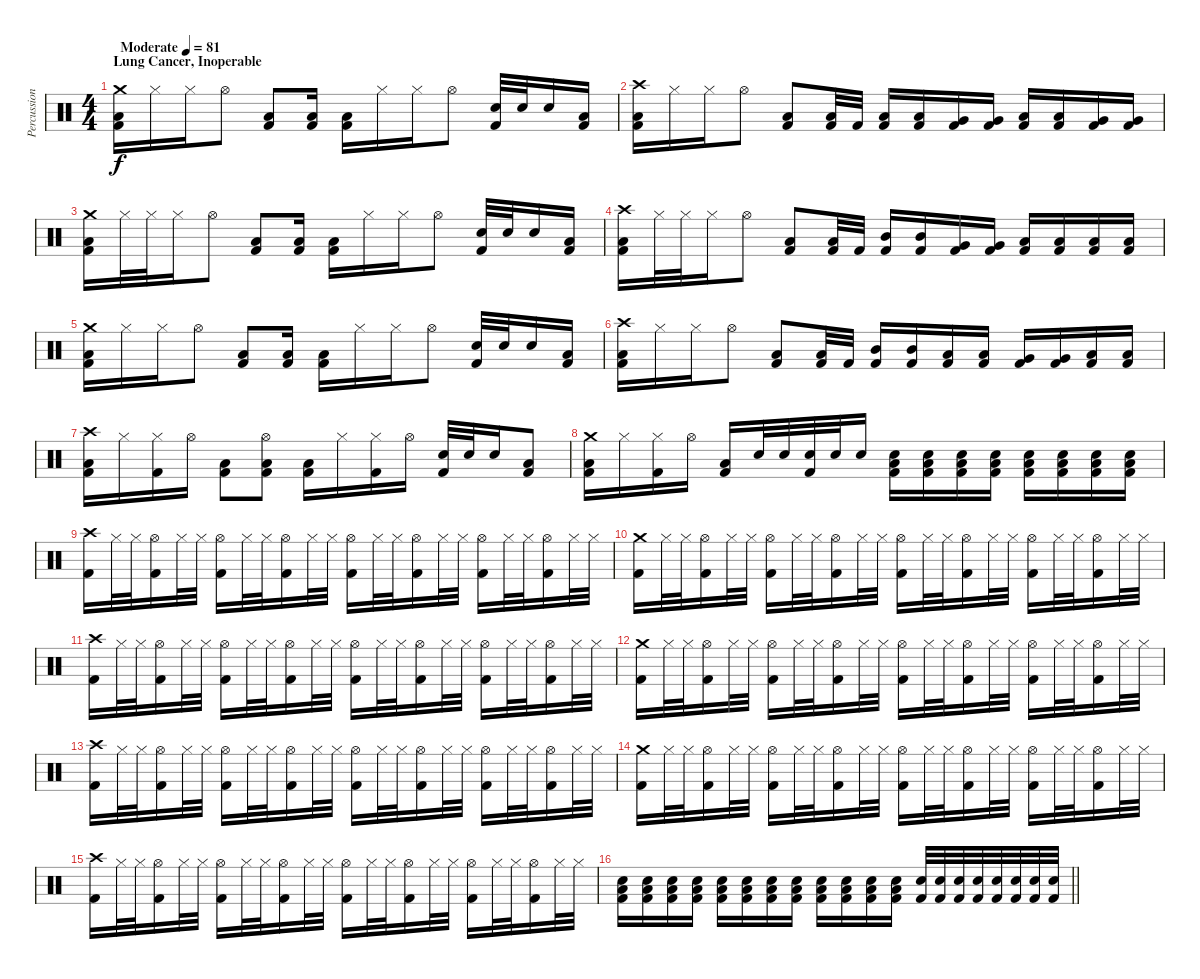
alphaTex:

\track ("Percussion" "Percussion") {instrument percussion}
\staff {score}
\articulation defaults
\ts (4 4)
\section ("" "Lung Cancer, Inoperable")
\tempo (81 "Moderate")
\clef neutral
\ks c
("Crash medium (hit)" "Low Floor Tom (hit)" "Kick (hit) 2").16{dy f} "Hi-Hat (closed)".16 "Hi-Hat (closed)".16 "Hi-Hat (open)".8 ("Low Floor Tom (hit)" "Kick (hit) 2").8 ("Low Floor Tom (hit)" "Kick (hit) 2").16 ("Low Floor Tom (hit)" "Kick (hit) 2").16 "Hi-Hat (closed)".16 "Hi-Hat (closed)".16 "Hi-Hat (open)".8 ("Electric Snare (hit)" "Kick (hit) 2").32 "Electric Snare (hit)".32 "Electric Snare (hit)".16 ("Low Floor Tom (hit)" "Kick (hit) 2").16 |
("Crash high (hit)" "Low Floor Tom (hit)" "Kick (hit) 2").16 "Hi-Hat (closed)".16 "Hi-Hat (closed)".16 "Hi-Hat (open)".8 ("Low Floor Tom (hit)" "Kick (hit) 2").8 ("Low Floor Tom (hit)" "Kick (hit) 2").32 "Kick (hit) 2".32 ("Low Floor Tom (hit)" "Kick (hit) 2").16 ("Low Floor Tom (hit)" "Kick (hit) 2").16 ("Very Low Tom (hit)" "Kick (hit) 2").16 ("Very Low Tom (hit)" "Kick (hit) 2").16 ("Low Tom (hit)" "Kick (hit) 2").16 ("Low Tom (hit)" "Kick (hit) 2").16 ("Very Low Tom (hit)" "Kick (hit) 2").16 ("Very Low Tom (hit)" "Kick (hit) 2").16 |
("Crash medium (hit)" "Low Floor Tom (hit)" "Kick (hit) 2").16 "Hi-Hat (closed)".32 "Hi-Hat (closed)".32 "Hi-Hat (closed)".16 "Hi-Hat (open)".8 ("Low Floor Tom (hit)" "Kick (hit) 2").8 ("Low Floor Tom (hit)" "Kick (hit) 2").16 ("Low Floor Tom (hit)" "Kick (hit) 2").16 "Hi-Hat (closed)".16 "Hi-Hat (closed)".16 "Hi-Hat (open)".8 ("Electric Snare (hit)" "Kick (hit) 2").32 "Electric Snare (hit)".32 "Electric Snare (hit)".16 ("Low Floor Tom (hit)" "Kick (hit) 2").16 |
("Crash high (hit)" "Low Floor Tom (hit)" "Kick (hit) 2").16 "Hi-Hat (closed)".32 "Hi-Hat (closed)".32 "Hi-Hat (closed)".16 "Hi-Hat (open)".8 ("Low Floor Tom (hit)" "Kick (hit) 2").8 ("Low Floor Tom (hit)" "Kick (hit) 2").32 "Kick (hit) 2".32 ("Mid Tom (hit)" "Kick (hit) 2").16 ("Mid Tom (hit)" "Kick (hit) 2").16 ("Very Low Tom (hit)" "Kick (hit) 2").16 ("Very Low Tom (hit)" "Kick (hit) 2").16 ("Low Tom (hit)" "Kick (hit) 2").16 ("Low Tom (hit)" "Kick (hit) 2").16 ("Low Floor Tom (hit)" "Kick (hit) 2").16 ("Low Floor Tom (hit)" "Kick (hit) 2").16 |
("Crash medium (hit)" "Low Floor Tom (hit)" "Kick (hit) 2").16 "Hi-Hat (closed)".16 "Hi-Hat (closed)".16 "Hi-Hat (open)".8 ("Low Floor Tom (hit)" "Kick (hit) 2").8 ("Low Floor Tom (hit)" "Kick (hit) 2").16 ("Low Floor Tom (hit)" "Kick (hit) 2").16 "Hi-Hat (closed)".16 "Hi-Hat (closed)".16 "Hi-Hat (open)".8 ("Electric Snare (hit)" "Kick (hit) 2").32 "Electric Snare (hit)".32 "Electric Snare (hit)".16 ("Low Floor Tom (hit)" "Kick (hit) 2").16 |
("Crash high (hit)" "Low Floor Tom (hit)" "Kick (hit) 2").16 "Hi-Hat (closed)".16 "Hi-Hat (closed)".16 "Hi-Hat (open)".8 ("Low Floor Tom (hit)" "Kick (hit) 2").8 ("Low Floor Tom (hit)" "Kick (hit) 2").32 "Kick (hit) 2".32 ("Mid Tom (hit)" "Kick (hit) 2").16 ("Mid Tom (hit)" "Kick (hit) 2").16 ("Low Tom (hit)" "Kick (hit) 2").16 ("Low Tom (hit)" "Kick (hit) 2").16 ("Very Low Tom (hit)" "Kick (hit) 2").16 ("Very Low Tom (hit)" "Kick (hit) 2").16 ("Low Floor Tom (hit)" "Kick (hit) 2").16 ("Low Floor Tom (hit)" "Kick (hit) 2").16 |
("Crash high (hit)" "Low Floor Tom (hit)" "Kick (hit) 2").16 "Hi-Hat (closed)".16 ("Hi-Hat (closed)" "Kick (hit) 2").16 "Hi-Hat (open)".16 ("Low Floor Tom (hit)" "Kick (hit) 2").8 ("Hi-Hat (open)" "Low Floor Tom (hit)" "Kick (hit) 2").8 ("Low Floor Tom (hit)" "Kick (hit) 2").16 "Hi-Hat (closed)".16 ("Hi-Hat (closed)" "Kick (hit) 2").16 "Hi-Hat (open)".16 ("Electric Snare (hit)" "Kick (hit) 2").32 "Electric Snare (hit)".32 "Electric Snare (hit)".16 ("Low Floor Tom (hit)" "Kick (hit) 2").8 |
("Crash medium (hit)" "Low Floor Tom (hit)" "Kick (hit) 2").16 "Hi-Hat (closed)".16 ("Hi-Hat (closed)" "Kick (hit) 2").16 "Hi-Hat (open)".16 ("Low Floor Tom (hit)" "Kick (hit) 2").16 "Electric Snare (hit)".32 "Electric Snare (hit)".32 ("Electric Snare (hit)" "Kick (hit) 2").32 "Electric Snare (hit)".32 "Electric Snare (hit)".16 ("Electric Snare (hit)" "Low Floor Tom (hit)" "Kick (hit) 2").16 ("Electric Snare (hit)" "Low Floor Tom (hit)" "Kick (hit) 2").16 ("Electric Snare (hit)" "Low Floor Tom (hit)" "Kick (hit) 2").16 ("Electric Snare (hit)" "Low Floor Tom (hit)" "Kick (hit) 2").16 ("Electric Snare (hit)" "Low Floor Tom (hit)" "Kick (hit) 2").16 ("Electric Snare (hit)" "Low Floor Tom (hit)" "Kick (hit) 2").16 ("Electric Snare (hit)" "Low Floor Tom (hit)" "Kick (hit) 2").16 ("Electric Snare (hit)" "Low Floor Tom (hit)" "Kick (hit) 2").16 |
("Crash high (hit)" "Kick (hit) 2").16 "Hi-Hat (closed)".32 "Hi-Hat (closed)".32 ("Hi-Hat (open)" "Kick (hit) 2").16 "Hi-Hat (closed)".32 "Hi-Hat (closed)".32 ("Hi-Hat (open)" "Kick (hit) 2").16 "Hi-Hat (closed)".32 "Hi-Hat (closed)".32 ("Hi-Hat (open)" "Kick (hit) 2").16 "Hi-Hat (closed)".32 "Hi-Hat (closed)".32 ("Hi-Hat (open)" "Kick (hit) 2").16 "Hi-Hat (closed)".32 "Hi-Hat (closed)".32 ("Hi-Hat (open)" "Kick (hit) 2").16 "Hi-Hat (closed)".32 "Hi-Hat (closed)".32 ("Hi-Hat (open)" "Kick (hit) 2").16 "Hi-Hat (closed)".32 "Hi-Hat (closed)".32 ("Hi-Hat (open)" "Kick (hit) 2").16 "Hi-Hat (closed)".32 "Hi-Hat (closed)".32 |
("Crash medium (hit)" "Kick (hit) 2").16 "Hi-Hat (closed)".32 "Hi-Hat (closed)".32 ("Hi-Hat (open)" "Kick (hit) 2").16 "Hi-Hat (closed)".32 "Hi-Hat (closed)".32 ("Hi-Hat (open)" "Kick (hit) 2").16 "Hi-Hat (closed)".32 "Hi-Hat (closed)".32 ("Hi-Hat (open)" "Kick (hit) 2").16 "Hi-Hat (closed)".32 "Hi-Hat (closed)".32 ("Hi-Hat (open)" "Kick (hit) 2").16 "Hi-Hat (closed)".32 "Hi-Hat (closed)".32 ("Hi-Hat (open)" "Kick (hit) 2").16 "Hi-Hat (closed)".32 "Hi-Hat (closed)".32 ("Hi-Hat (open)" "Kick (hit) 2").16 "Hi-Hat (closed)".32 "Hi-Hat (closed)".32 ("Hi-Hat (open)" "Kick (hit) 2").16 "Hi-Hat (closed)".32 "Hi-Hat (closed)".32 |
("Crash high (hit)" "Kick (hit) 2").16 "Hi-Hat (closed)".32 "Hi-Hat (closed)".32 ("Hi-Hat (open)" "Kick (hit) 2").16 "Hi-Hat (closed)".32 "Hi-Hat (closed)".32 ("Hi-Hat (open)" "Kick (hit) 2").16 "Hi-Hat (closed)".32 "Hi-Hat (closed)".32 ("Hi-Hat (open)" "Kick (hit) 2").16 "Hi-Hat (closed)".32 "Hi-Hat (closed)".32 ("Hi-Hat (open)" "Kick (hit) 2").16 "Hi-Hat (closed)".32 "Hi-Hat (closed)".32 ("Hi-Hat (open)" "Kick (hit) 2").16 "Hi-Hat (closed)".32 "Hi-Hat (closed)".32 ("Hi-Hat (open)" "Kick (hit) 2").16 "Hi-Hat (closed)".32 "Hi-Hat (closed)".32 ("Hi-Hat (open)" "Kick (hit) 2").16 "Hi-Hat (closed)".32 "Hi-Hat (closed)".32 |
("Crash medium (hit)" "Kick (hit) 2").16 "Hi-Hat (closed)".32 "Hi-Hat (closed)".32 ("Hi-Hat (open)" "Kick (hit) 2").16 "Hi-Hat (closed)".32 "Hi-Hat (closed)".32 ("Hi-Hat (open)" "Kick (hit) 2").16 "Hi-Hat (closed)".32 "Hi-Hat (closed)".32 ("Hi-Hat (open)" "Kick (hit) 2").16 "Hi-Hat (closed)".32 "Hi-Hat (closed)".32 ("Hi-Hat (open)" "Kick (hit) 2").16 "Hi-Hat (closed)".32 "Hi-Hat (closed)".32 ("Hi-Hat (open)" "Kick (hit) 2").16 "Hi-Hat (closed)".32 "Hi-Hat (closed)".32 ("Hi-Hat (open)" "Kick (hit) 2").16 "Hi-Hat (closed)".32 "Hi-Hat (closed)".32 ("Hi-Hat (open)" "Kick (hit) 2").16 "Hi-Hat (closed)".32 "Hi-Hat (closed)".32 |
("Crash high (hit)" "Kick (hit) 2").16 "Hi-Hat (closed)".32 "Hi-Hat (closed)".32 ("Hi-Hat (open)" "Kick (hit) 2").16 "Hi-Hat (closed)".32 "Hi-Hat (closed)".32 ("Hi-Hat (open)" "Kick (hit) 2").16 "Hi-Hat (closed)".32 "Hi-Hat (closed)".32 ("Hi-Hat (open)" "Kick (hit) 2").16 "Hi-Hat (closed)".32 "Hi-Hat (closed)".32 ("Hi-Hat (open)" "Kick (hit) 2").16 "Hi-Hat (closed)".32 "Hi-Hat (closed)".32 ("Hi-Hat (open)" "Kick (hit) 2").16 "Hi-Hat (closed)".32 "Hi-Hat (closed)".32 ("Hi-Hat (open)" "Kick (hit) 2").16 "Hi-Hat (closed)".32 "Hi-Hat (closed)".32 ("Hi-Hat (open)" "Kick (hit) 2").16 "Hi-Hat (closed)".32 "Hi-Hat (closed)".32 |
("Crash medium (hit)" "Kick (hit) 2").16 "Hi-Hat (closed)".32 "Hi-Hat (closed)".32 ("Hi-Hat (open)" "Kick (hit) 2").16 "Hi-Hat (closed)".32 "Hi-Hat (closed)".32 ("Hi-Hat (open)" "Kick (hit) 2").16 "Hi-Hat (closed)".32 "Hi-Hat (closed)".32 ("Hi-Hat (open)" "Kick (hit) 2").16 "Hi-Hat (closed)".32 "Hi-Hat (closed)".32 ("Hi-Hat (open)" "Kick (hit) 2").16 "Hi-Hat (closed)".32 "Hi-Hat (closed)".32 ("Hi-Hat (open)" "Kick (hit) 2").16 "Hi-Hat (closed)".32 "Hi-Hat (closed)".32 ("Hi-Hat (open)" "Kick (hit) 2").16 "Hi-Hat (closed)".32 "Hi-Hat (closed)".32 ("Hi-Hat (open)" "Kick (hit) 2").16 "Hi-Hat (closed)".32 "Hi-Hat (closed)".32 |
("Crash high (hit)" "Kick (hit) 2").16 "Hi-Hat (closed)".32 "Hi-Hat (closed)".32 ("Hi-Hat (open)" "Kick (hit) 2").16 "Hi-Hat (closed)".32 "Hi-Hat (closed)".32 ("Hi-Hat (open)" "Kick (hit) 2").16 "Hi-Hat (closed)".32 "Hi-Hat (closed)".32 ("Hi-Hat (open)" "Kick (hit) 2").16 "Hi-Hat (closed)".32 "Hi-Hat (closed)".32 ("Hi-Hat (open)" "Kick (hit) 2").16 "Hi-Hat (closed)".32 "Hi-Hat (closed)".32 ("Hi-Hat (open)" "Kick (hit) 2").16 "Hi-Hat (closed)".32 "Hi-Hat (closed)".32 ("Hi-Hat (open)" "Kick (hit) 2").16 "Hi-Hat (closed)".32 "Hi-Hat (closed)".32 ("Hi-Hat (open)" "Kick (hit) 2").16 "Hi-Hat (closed)".32 "Hi-Hat (closed)".32 |
\barLineRight lightlight
("Electric Snare (hit)" "Low Floor Tom (hit)" "Kick (hit) 2").16 ("Electric Snare (hit)" "Low Floor Tom (hit)" "Kick (hit) 2").16 ("Electric Snare (hit)" "Low Floor Tom (hit)" "Kick (hit) 2").16 ("Electric Snare (hit)" "Low Floor Tom (hit)" "Kick (hit) 2").16 ("Electric Snare (hit)" "Low Floor Tom (hit)" "Kick (hit) 2").16 ("Electric Snare (hit)" "Low Floor Tom (hit)" "Kick (hit) 2").16 ("Electric Snare (hit)" "Low Floor Tom (hit)" "Kick (hit) 2").16 ("Electric Snare (hit)" "Low Floor Tom (hit)" "Kick (hit) 2").16 ("Electric Snare (hit)" "Low Floor Tom (hit)" "Kick (hit) 2").16 ("Electric Snare (hit)" "Low Floor Tom (hit)" "Kick (hit) 2").16 ("Electric Snare (hit)" "Low Floor Tom (hit)" "Kick (hit) 2").16 ("Electric Snare (hit)" "Low Floor Tom (hit)" "Kick (hit) 2").16 ("Electric Snare (hit)" "Kick (hit) 2").32 ("Electric Snare (hit)" "Kick (hit) 2").32 ("Electric Snare (hit)" "Kick (hit) 2").32 ("Electric Snare (hit)" "Kick (hit) 2").32 ("Electric Snare (hit)" "Kick (hit) 2").32 ("Electric Snare (hit)" "Kick (hit) 2").32 ("Electric Snare (hit)" "Kick (hit) 2").32 ("Electric Snare (hit)" "Kick (hit) 2").32
